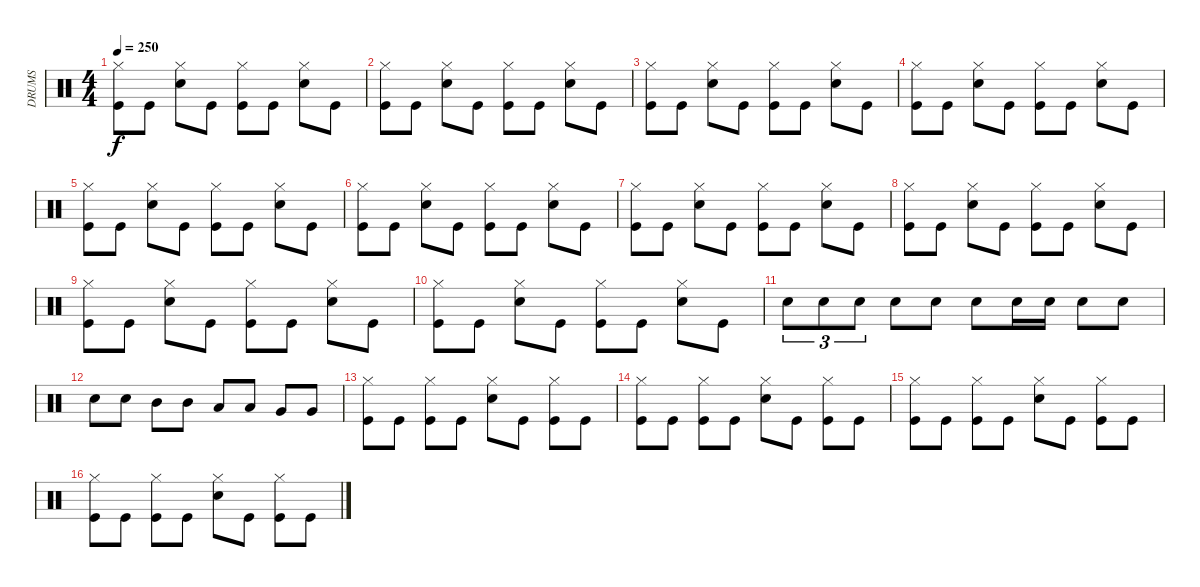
\track ("DRUMS" "DRUMS") {instrument percussion}
\staff {score}
\articulation defaults
\ts (4 4)
\tempo 250
\clef neutral
\ks aminor
("Hi-Hat (closed)" "Kick (hit)").8{dy f} "Kick (hit)".8 ("Hi-Hat (closed)" "Snare (hit) 2").8 "Kick (hit)".8 ("Hi-Hat (closed)" "Kick (hit)").8 "Kick (hit)".8 ("Hi-Hat (closed)" "Snare (hit) 2").8 "Kick (hit)".8 |
("Hi-Hat (closed)" "Kick (hit)").8 "Kick (hit)".8 ("Hi-Hat (closed)" "Snare (hit) 2").8 "Kick (hit)".8 ("Hi-Hat (closed)" "Kick (hit)").8 "Kick (hit)".8 ("Hi-Hat (closed)" "Snare (hit) 2").8 "Kick (hit)".8 |
("Hi-Hat (closed)" "Kick (hit)").8 "Kick (hit)".8 ("Hi-Hat (closed)" "Snare (hit) 2").8 "Kick (hit)".8 ("Hi-Hat (closed)" "Kick (hit)").8 "Kick (hit)".8 ("Hi-Hat (closed)" "Snare (hit) 2").8 "Kick (hit)".8 |
("Hi-Hat (closed)" "Kick (hit)").8 "Kick (hit)".8 ("Hi-Hat (closed)" "Snare (hit) 2").8 "Kick (hit)".8 ("Hi-Hat (closed)" "Kick (hit)").8 "Kick (hit)".8 ("Hi-Hat (closed)" "Snare (hit) 2").8 "Kick (hit)".8 |
("Hi-Hat (closed)" "Kick (hit)").8 "Kick (hit)".8 ("Hi-Hat (closed)" "Snare (hit) 2").8 "Kick (hit)".8 ("Hi-Hat (closed)" "Kick (hit)").8 "Kick (hit)".8 ("Hi-Hat (closed)" "Snare (hit) 2").8 "Kick (hit)".8 |
("Hi-Hat (closed)" "Kick (hit)").8 "Kick (hit)".8 ("Hi-Hat (closed)" "Snare (hit) 2").8 "Kick (hit)".8 ("Hi-Hat (closed)" "Kick (hit)").8 "Kick (hit)".8 ("Hi-Hat (closed)" "Snare (hit) 2").8 "Kick (hit)".8 |
("Hi-Hat (closed)" "Kick (hit)").8 "Kick (hit)".8 ("Hi-Hat (closed)" "Snare (hit) 2").8 "Kick (hit)".8 ("Hi-Hat (closed)" "Kick (hit)").8 "Kick (hit)".8 ("Hi-Hat (closed)" "Snare (hit) 2").8 "Kick (hit)".8 |
("Hi-Hat (closed)" "Kick (hit)").8 "Kick (hit)".8 ("Hi-Hat (closed)" "Snare (hit) 2").8 "Kick (hit)".8 ("Hi-Hat (closed)" "Kick (hit)").8 "Kick (hit)".8 ("Hi-Hat (closed)" "Snare (hit) 2").8 "Kick (hit)".8 |
("Hi-Hat (closed)" "Kick (hit)").8 "Kick (hit)".8 ("Hi-Hat (closed)" "Snare (hit) 2").8 "Kick (hit)".8 ("Hi-Hat (closed)" "Kick (hit)").8 "Kick (hit)".8 ("Hi-Hat (closed)" "Snare (hit) 2").8 "Kick (hit)".8 |
("Hi-Hat (closed)" "Kick (hit)").8 "Kick (hit)".8 ("Hi-Hat (closed)" "Snare (hit) 2").8 "Kick (hit)".8 ("Hi-Hat (closed)" "Kick (hit)").8 "Kick (hit)".8 ("Hi-Hat (closed)" "Snare (hit) 2").8 "Kick (hit)".8 |
"Snare (hit) 2".8{tu (3 2)} "Snare (hit) 2".8{tu (3 2)} "Snare (hit) 2".8{tu (3 2)} "Snare (hit) 2".8 "Snare (hit) 2".8 "Snare (hit) 2".8 "Snare (hit) 2".16 "Snare (hit) 2".16 "Snare (hit) 2".8 "Snare (hit) 2".8 |
"Snare (hit) 2".8 "Snare (hit) 2".8 "Mid Tom (hit)".8 "Mid Tom (hit)".8 "Low Tom (hit)".8 "Low Tom (hit)".8 "Very Low Tom (hit)".8 "Very Low Tom (hit)".8 |
("Hi-Hat (closed)" "Kick (hit)").8 "Kick (hit)".8 ("Hi-Hat (closed)" "Kick (hit)").8 "Kick (hit)".8 ("Hi-Hat (closed)" "Snare (hit) 2").8 "Kick (hit)".8 ("Hi-Hat (closed)" "Kick (hit)").8 "Kick (hit)".8 |
("Hi-Hat (closed)" "Kick (hit)").8 "Kick (hit)".8 ("Hi-Hat (closed)" "Kick (hit)").8 "Kick (hit)".8 ("Hi-Hat (closed)" "Snare (hit) 2").8 "Kick (hit)".8 ("Hi-Hat (closed)" "Kick (hit)").8 "Kick (hit)".8 |
("Hi-Hat (closed)" "Kick (hit)").8 "Kick (hit)".8 ("Hi-Hat (closed)" "Kick (hit)").8 "Kick (hit)".8 ("Hi-Hat (closed)" "Snare (hit) 2").8 "Kick (hit)".8 ("Hi-Hat (closed)" "Kick (hit)").8 "Kick (hit)".8 |
("Hi-Hat (closed)" "Kick (hit)").8 "Kick (hit)".8 ("Hi-Hat (closed)" "Kick (hit)").8 "Kick (hit)".8 ("Hi-Hat (closed)" "Snare (hit) 2").8 "Kick (hit)".8 ("Hi-Hat (closed)" "Kick (hit)").8 "Kick (hit)".8
